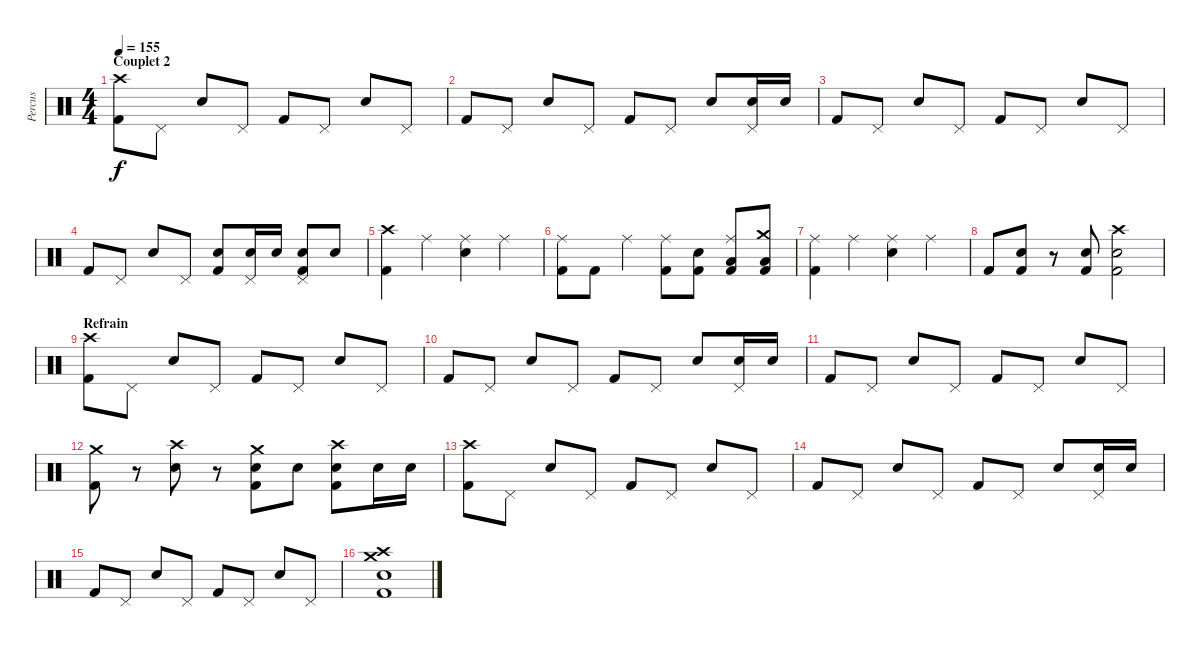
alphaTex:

\track ("Percus" "Percus") {instrument percussion}
\staff {score}
\articulation defaults
\ts (4 4)
\section ("" "Couplet 2")
\tempo 155
\clef neutral
\ks c
("Crash high (hit)" "Kick (hit) 2").8{dy f} "Pedal Hi-Hat (hit)".8 "Snare (hit) 2".8 "Pedal Hi-Hat (hit)".8 "Kick (hit) 2".8 "Pedal Hi-Hat (hit)".8 "Snare (hit) 2".8 "Pedal Hi-Hat (hit)".8 |
"Kick (hit) 2".8 "Pedal Hi-Hat (hit)".8 "Snare (hit) 2".8 "Pedal Hi-Hat (hit)".8 "Kick (hit) 2".8 "Pedal Hi-Hat (hit)".8 "Snare (hit) 2".8 ("Pedal Hi-Hat (hit)" "Snare (hit) 2").16 "Snare (hit) 2".16 |
"Kick (hit) 2".8 "Pedal Hi-Hat (hit)".8 "Snare (hit) 2".8 "Pedal Hi-Hat (hit)".8 "Kick (hit) 2".8 "Pedal Hi-Hat (hit)".8 "Snare (hit) 2".8 "Pedal Hi-Hat (hit)".8 |
"Kick (hit) 2".8 "Pedal Hi-Hat (hit)".8 "Snare (hit) 2".8 "Pedal Hi-Hat (hit)".8 ("Snare (hit) 2" "Kick (hit) 2").8 ("Pedal Hi-Hat (hit)" "Snare (hit) 2").16 "Snare (hit) 2".16 ("Pedal Hi-Hat (hit)" "Snare (hit) 2" "Kick (hit) 2").8 "Snare (hit) 2".8 |
("Crash high (hit)" "Kick (hit) 2").4 "Ride (middle)".4 ("Ride (middle)" "Snare (hit) 2").4 "Ride (middle)".4 |
("Ride (middle)" "Kick (hit) 2").8 "Kick (hit) 2".8 "Ride (middle)".4 ("Ride (middle)" "Kick (hit) 2").8 ("Snare (hit) 2" "Kick (hit) 2").8 ("Ride (middle)" "Low Tom (hit)" "Kick (hit) 2").8 ("Crash medium (hit)" "Low Floor Tom (hit)" "Kick (hit) 2").8 |
("Ride (middle)" "Kick (hit) 2").4 "Ride (middle)".4 ("Ride (middle)" "Snare (hit) 2").4 "Ride (middle)".4 |
"Kick (hit) 2".8 ("Snare (hit) 2" "Kick (hit) 2").8 r.8 ("Snare (hit) 2" "Kick (hit) 2").8 ("Crash high (hit)" "Snare (hit) 2" "Kick (hit) 2").2 |
\section ("" "Refrain")
("Crash high (hit)" "Kick (hit) 2").8 "Pedal Hi-Hat (hit)".8 "Snare (hit) 2".8 "Pedal Hi-Hat (hit)".8 "Kick (hit) 2".8 "Pedal Hi-Hat (hit)".8 "Snare (hit) 2".8 "Pedal Hi-Hat (hit)".8 |
"Kick (hit) 2".8 "Pedal Hi-Hat (hit)".8 "Snare (hit) 2".8 "Pedal Hi-Hat (hit)".8 "Kick (hit) 2".8 "Pedal Hi-Hat (hit)".8 "Snare (hit) 2".8 ("Pedal Hi-Hat (hit)" "Snare (hit) 2").16 "Snare (hit) 2".16 |
"Kick (hit) 2".8 "Pedal Hi-Hat (hit)".8 "Snare (hit) 2".8 "Pedal Hi-Hat (hit)".8 "Kick (hit) 2".8 "Pedal Hi-Hat (hit)".8 "Snare (hit) 2".8 "Pedal Hi-Hat (hit)".8 |
("Crash medium (hit)" "Kick (hit) 2").8 r.8 ("Crash high (hit)" "Snare (hit) 2").8 r.8 ("Crash medium (hit)" "Snare (hit) 2" "Kick (hit) 2").8 "Snare (hit) 2".8 ("Crash high (hit)" "Snare (hit) 2" "Kick (hit) 2").8 "Snare (hit) 2".16 "Snare (hit) 2".16 |
("Crash high (hit)" "Kick (hit) 2").8 "Pedal Hi-Hat (hit)".8 "Snare (hit) 2".8 "Pedal Hi-Hat (hit)".8 "Kick (hit) 2".8 "Pedal Hi-Hat (hit)".8 "Snare (hit) 2".8 "Pedal Hi-Hat (hit)".8 |
"Kick (hit) 2".8 "Pedal Hi-Hat (hit)".8 "Snare (hit) 2".8 "Pedal Hi-Hat (hit)".8 "Kick (hit) 2".8 "Pedal Hi-Hat (hit)".8 "Snare (hit) 2".8 ("Pedal Hi-Hat (hit)" "Snare (hit) 2").16 "Snare (hit) 2".16 |
"Kick (hit) 2".8 "Pedal Hi-Hat (hit)".8 "Snare (hit) 2".8 "Pedal Hi-Hat (hit)".8 "Kick (hit) 2".8 "Pedal Hi-Hat (hit)".8 "Snare (hit) 2".8 "Pedal Hi-Hat (hit)".8 |
("Crash medium (hit)" "Crash high (hit)" "Snare (hit) 2" "Kick (hit) 2").1
